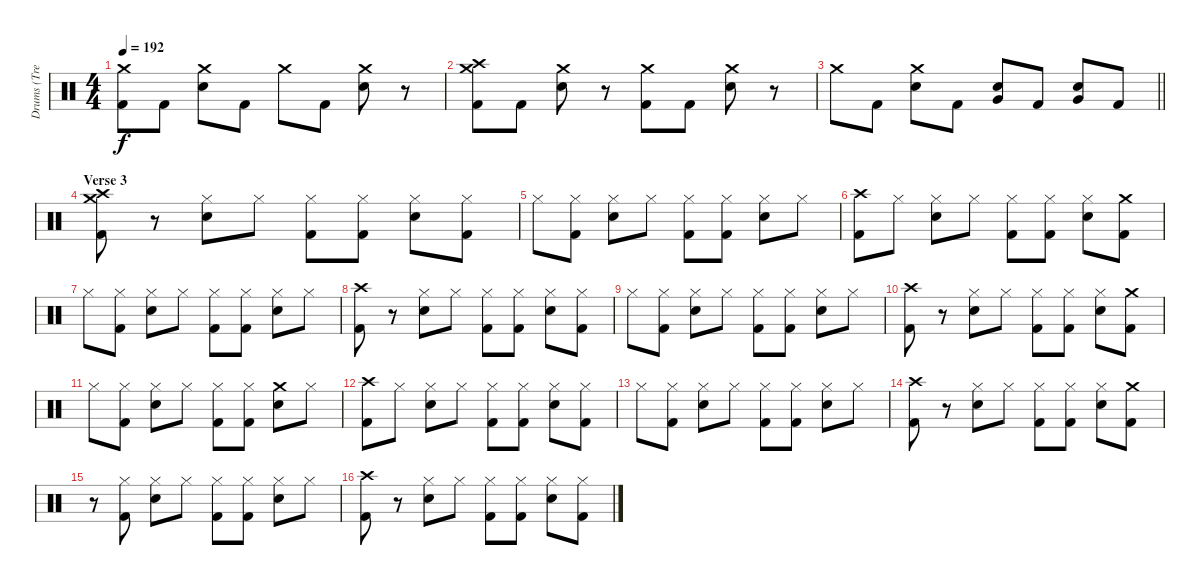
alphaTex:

\track ("Drums (Tre Cool)" "Drums (Tre") {instrument percussion}
\staff {score}
\articulation defaults
\ts (4 4)
\tempo 192
\clef neutral
\ks c
("Crash medium (hit)" "Kick (hit) 2").8{dy f} "Kick (hit) 2".8 ("Crash medium (hit)" "Snare (hit) 2").8 "Kick (hit) 2".8 "Crash medium (hit)".8 "Kick (hit) 2".8 ("Crash medium (hit)" "Snare (hit) 2").8 r.8 |
("Crash high (hit)" "Crash medium (hit)" "Kick (hit) 2").8 "Kick (hit) 2".8 ("Crash medium (hit)" "Snare (hit) 2").8 r.8 ("Crash medium (hit)" "Kick (hit) 2").8 "Kick (hit) 2".8 ("Crash medium (hit)" "Snare (hit) 2").8 r.8 |
\barLineRight lightlight "Crash medium (hit)".8 "Kick (hit) 2".8
("Crash medium (hit)" "Snare (hit) 2").8 "Kick (hit) 2".8 ("Snare (hit) 2" "Very Low Tom (hit)").8 "Kick (hit) 2".8 ("Snare (hit) 2" "Very Low Tom (hit)").8 "Kick (hit) 2".8 |
\section ("" "Verse 3")
("Crash high (hit)" "Crash medium (hit)" "Kick (hit) 2").8 r.8 ("Hi-Hat (closed)" "Snare (hit) 2").8 "Hi-Hat (closed)".8 ("Hi-Hat (closed)" "Kick (hit) 2").8 ("Hi-Hat (closed)" "Kick (hit) 2").8 ("Hi-Hat (closed)" "Snare (hit) 2").8 ("Hi-Hat (closed)" "Kick (hit) 2").8 |
"Hi-Hat (closed)".8 ("Hi-Hat (closed)" "Kick (hit) 2").8 ("Hi-Hat (closed)" "Snare (hit) 2").8 "Hi-Hat (closed)".8 ("Hi-Hat (closed)" "Kick (hit) 2").8 ("Hi-Hat (closed)" "Kick (hit) 2").8 ("Hi-Hat (closed)" "Snare (hit) 2").8 "Hi-Hat (closed)".8 |
("Crash high (hit)" "Kick (hit) 2").8 "Hi-Hat (closed)".8 ("Hi-Hat (closed)" "Snare (hit) 2").8 "Hi-Hat (closed)".8 ("Hi-Hat (closed)" "Kick (hit) 2").8 ("Hi-Hat (closed)" "Kick (hit) 2").8 ("Hi-Hat (closed)" "Snare (hit) 2").8 ("Crash medium (hit)" "Kick (hit) 2").8 |
"Hi-Hat (closed)".8 ("Hi-Hat (closed)" "Kick (hit) 2").8 ("Hi-Hat (closed)" "Snare (hit) 2").8 "Hi-Hat (closed)".8 ("Hi-Hat (closed)" "Kick (hit) 2").8 ("Hi-Hat (closed)" "Kick (hit) 2").8 ("Hi-Hat (closed)" "Snare (hit) 2").8 "Hi-Hat (closed)".8 |
("Crash high (hit)" "Kick (hit) 2").8 r.8 ("Hi-Hat (closed)" "Snare (hit) 2").8 "Hi-Hat (closed)".8 ("Hi-Hat (closed)" "Kick (hit) 2").8 ("Hi-Hat (closed)" "Kick (hit) 2").8 ("Hi-Hat (closed)" "Snare (hit) 2").8 ("Hi-Hat (closed)" "Kick (hit) 2").8 |
"Hi-Hat (closed)".8 ("Hi-Hat (closed)" "Kick (hit) 2").8 ("Hi-Hat (closed)" "Snare (hit) 2").8 "Hi-Hat (closed)".8 ("Hi-Hat (closed)" "Kick (hit) 2").8 ("Hi-Hat (closed)" "Kick (hit) 2").8 ("Hi-Hat (closed)" "Snare (hit) 2").8 "Hi-Hat (closed)".8 |
("Crash high (hit)" "Kick (hit) 2").8 r.8 ("Hi-Hat (closed)" "Snare (hit) 2").8 "Hi-Hat (closed)".8 ("Hi-Hat (closed)" "Kick (hit) 2").8 ("Hi-Hat (closed)" "Kick (hit) 2").8 ("Hi-Hat (closed)" "Snare (hit) 2").8 ("Crash medium (hit)" "Kick (hit) 2").8 |
"Hi-Hat (closed)".8 ("Hi-Hat (closed)" "Kick (hit) 2").8 ("Hi-Hat (closed)" "Snare (hit) 2").8 "Hi-Hat (closed)".8 ("Hi-Hat (closed)" "Kick (hit) 2").8 ("Hi-Hat (closed)" "Kick (hit) 2").8 ("Crash medium (hit)" "Snare (hit) 2").8 "Hi-Hat (closed)".8 |
("Crash high (hit)" "Kick (hit) 2").8 "Hi-Hat (closed)".8 ("Hi-Hat (closed)" "Snare (hit) 2").8 "Hi-Hat (closed)".8 ("Hi-Hat (closed)" "Kick (hit) 2").8 ("Hi-Hat (closed)" "Kick (hit) 2").8 ("Hi-Hat (closed)" "Snare (hit) 2").8 ("Hi-Hat (closed)" "Kick (hit) 2").8 |
"Hi-Hat (closed)".8 ("Hi-Hat (closed)" "Kick (hit) 2").8 ("Hi-Hat (closed)" "Snare (hit) 2").8 "Hi-Hat (closed)".8 ("Hi-Hat (closed)" "Kick (hit) 2").8 ("Hi-Hat (closed)" "Kick (hit) 2").8 ("Hi-Hat (closed)" "Snare (hit) 2").8 "Hi-Hat (closed)".8 |
("Crash high (hit)" "Kick (hit) 2").8 r.8 ("Hi-Hat (closed)" "Snare (hit) 2").8 "Hi-Hat (closed)".8 ("Hi-Hat (closed)" "Kick (hit) 2").8 ("Hi-Hat (closed)" "Kick (hit) 2").8 ("Hi-Hat (closed)" "Snare (hit) 2").8 ("Crash medium (hit)" "Kick (hit) 2").8 |
r.8 ("Hi-Hat (closed)" "Kick (hit) 2").8 ("Hi-Hat (closed)" "Snare (hit) 2").8 "Hi-Hat (closed)".8 ("Hi-Hat (closed)" "Kick (hit) 2").8 ("Hi-Hat (closed)" "Kick (hit) 2").8 ("Hi-Hat (closed)" "Snare (hit) 2").8 "Hi-Hat (closed)".8 |
("Crash high (hit)" "Kick (hit) 2").8 r.8 ("Hi-Hat (closed)" "Snare (hit) 2").8 "Hi-Hat (closed)".8 ("Hi-Hat (closed)" "Kick (hit) 2").8 ("Hi-Hat (closed)" "Kick (hit) 2").8 ("Hi-Hat (closed)" "Snare (hit) 2").8 ("Hi-Hat (closed)" "Kick (hit) 2").8
